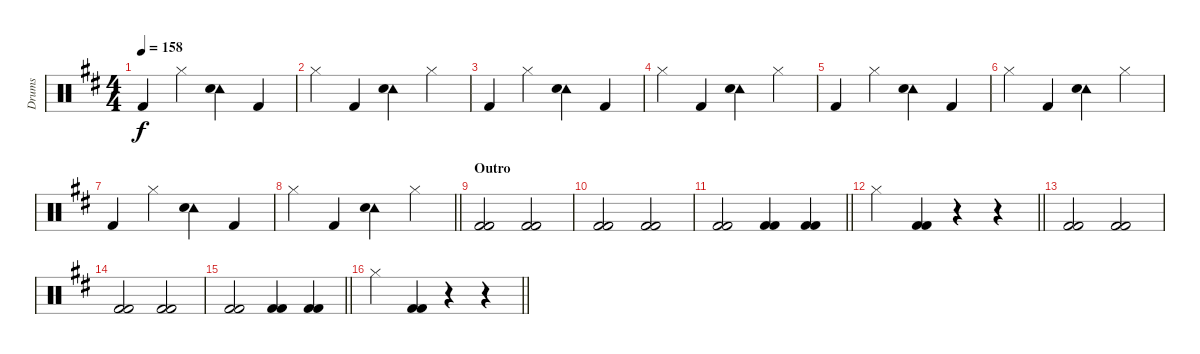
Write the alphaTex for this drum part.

\track ("Drums" "Drums") {instrument percussion}
\staff {score}
\articulation defaults
\ts (4 4)
\tempo 158
\clef neutral
\ks d "Kick (hit) 2".4{dy f} "Hi-Hat (closed)".4
("Tambourine (hit)" "Snare (hit) 2").4 "Kick (hit) 2".4 |
"Hi-Hat (closed)".4 "Kick (hit) 2".4 ("Tambourine (hit)" "Snare (hit) 2").4 "Hi-Hat (closed)".4 |
"Kick (hit) 2".4 "Hi-Hat (closed)".4 ("Tambourine (hit)" "Snare (hit) 2").4 "Kick (hit) 2".4 |
"Hi-Hat (closed)".4 "Kick (hit) 2".4 ("Tambourine (hit)" "Snare (hit) 2").4 "Hi-Hat (closed)".4 |
"Kick (hit) 2".4 "Hi-Hat (closed)".4 ("Tambourine (hit)" "Snare (hit) 2").4 "Kick (hit) 2".4 |
"Hi-Hat (closed)".4 "Kick (hit) 2".4 ("Tambourine (hit)" "Snare (hit) 2").4 "Hi-Hat (closed)".4 |
"Kick (hit) 2".4 "Hi-Hat (closed)".4 ("Tambourine (hit)" "Snare (hit) 2").4 "Kick (hit) 2".4 |
\barLineRight lightlight "Hi-Hat (closed)".4 "Kick (hit) 2".4
("Tambourine (hit)" "Snare (hit) 2").4 "Hi-Hat (closed)".4 |
\section ("" "Outro")
("Kick (hit) 2" "Kick (hit) 2").2 ("Kick (hit) 2" "Kick (hit) 2").2 |
("Kick (hit) 2" "Kick (hit) 2").2 ("Kick (hit) 2" "Kick (hit) 2").2 |
\barLineRight lightlight
("Kick (hit) 2" "Kick (hit) 2").2 ("Kick (hit) 2" "Kick (hit) 2").4 ("Kick (hit) 2" "Kick (hit) 2").4 |
\barLineRight lightlight "Hi-Hat (closed)".4
("Kick (hit) 2" "Kick (hit) 2").4 r.4 r.4 |
("Kick (hit) 2" "Kick (hit) 2").2 ("Kick (hit) 2" "Kick (hit) 2").2 |
("Kick (hit) 2" "Kick (hit) 2").2 ("Kick (hit) 2" "Kick (hit) 2").2 |
\barLineRight lightlight
("Kick (hit) 2" "Kick (hit) 2").2 ("Kick (hit) 2" "Kick (hit) 2").4 ("Kick (hit) 2" "Kick (hit) 2").4 |
\barLineRight lightlight "Hi-Hat (closed)".4
("Kick (hit) 2" "Kick (hit) 2").4 r.4 r.4
